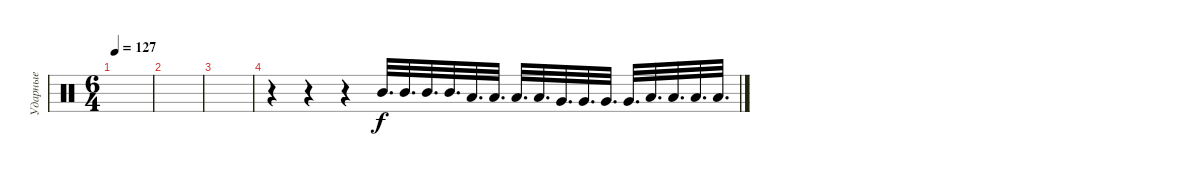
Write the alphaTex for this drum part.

\track ("Ударные" "Ударные") {instrument percussion}
\staff {score}
\articulation defaults
\ts (6 4)
\tempo 127
\clef neutral
\ks c
|
|
|
r.4 r.4 r.4 "Mid Tom (hit)".32{d} "Mid Tom (hit)".32{d} "Mid Tom (hit)".32{d} "Mid Tom (hit)".32{d} "Low Tom (hit)".32{d} "Low Tom (hit)".32{d} "Low Tom (hit)".32{d} "Low Tom (hit)".32{d} "Very Low Tom (hit)".32{d} "Very Low Tom (hit)".32{d} "Very Low Tom (hit)".32{d} "Very Low Tom (hit)".32{d} "Low Floor Tom (hit)".32{d} "Low Floor Tom (hit)".32{d} "Low Floor Tom (hit)".32{d} "Low Floor Tom (hit)".32{d}
